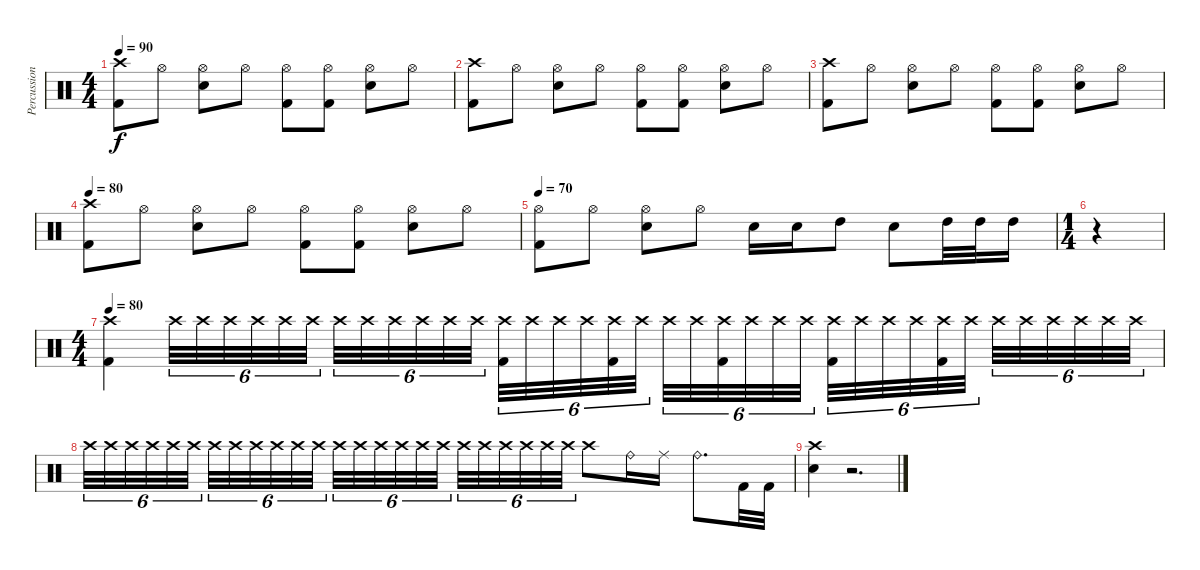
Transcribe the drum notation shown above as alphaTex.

\track ("Percussion" "Percussion") {instrument percussion}
\staff {score}
\articulation defaults
\ts (4 4)
\tempo 90
\clef neutral
\ks c
("Crash high (hit)" "Kick (hit) 2").8{dy f} "Hi-Hat (open)".8 ("Hi-Hat (open)" "Electric Snare (hit)").8 "Hi-Hat (open)".8 ("Hi-Hat (open)" "Kick (hit) 2").8 ("Hi-Hat (open)" "Kick (hit) 2").8 ("Hi-Hat (open)" "Electric Snare (hit)").8 "Hi-Hat (open)".8 |
("Crash high (hit)" "Kick (hit) 2").8 "Hi-Hat (open)".8 ("Hi-Hat (open)" "Electric Snare (hit)").8 "Hi-Hat (open)".8 ("Hi-Hat (open)" "Kick (hit) 2").8 ("Hi-Hat (open)" "Kick (hit) 2").8 ("Hi-Hat (open)" "Electric Snare (hit)").8 "Hi-Hat (open)".8 |
("Crash high (hit)" "Kick (hit) 2").8 "Hi-Hat (open)".8 ("Hi-Hat (open)" "Electric Snare (hit)").8 "Hi-Hat (open)".8 ("Hi-Hat (open)" "Kick (hit) 2").8 ("Hi-Hat (open)" "Kick (hit) 2").8 ("Hi-Hat (open)" "Electric Snare (hit)").8 "Hi-Hat (open)".8 |
\tempo 80
("Crash high (hit)" "Kick (hit) 2").8 "Hi-Hat (open)".8 ("Hi-Hat (open)" "Electric Snare (hit)").8 "Hi-Hat (open)".8 ("Hi-Hat (open)" "Kick (hit) 2").8 ("Hi-Hat (open)" "Kick (hit) 2").8 ("Hi-Hat (open)" "Electric Snare (hit)").8 "Hi-Hat (open)".8 |
\tempo 70
("Hi-Hat (open)" "Kick (hit) 2").8 "Hi-Hat (open)".8 ("Hi-Hat (open)" "Electric Snare (hit)").8 "Hi-Hat (open)".8 "Electric Snare (hit)".16 "Electric Snare (hit)".16 "High Tom (hit)".8 "Electric Snare (hit)".8 "High Tom (hit)".32 "High Tom (hit)".32 "High Tom (hit)".16 |
\ts (1 4)
r.4 |
\ts (4 4)
\tempo 80
("Crash high (hit)" "Kick (hit) 2").4 "Crash high (hit)".32{tu (6 4)} "Crash high (hit)".32{tu (6 4)} "Crash high (hit)".32{tu (6 4)} "Crash high (hit)".32{tu (6 4)} "Crash high (hit)".32{tu (6 4)} "Crash high (hit)".32{tu (6 4)} "Crash high (hit)".32{tu (6 4)} "Crash high (hit)".32{tu (6 4)} "Crash high (hit)".32{tu (6 4)} "Crash high (hit)".32{tu (6 4)} "Crash high (hit)".32{tu (6 4)} "Crash high (hit)".32{tu (6 4)} ("Crash high (hit)" "Kick (hit) 2").32{tu (6 4)} "Crash high (hit)".32{tu (6 4)} "Crash high (hit)".32{tu (6 4)} "Crash high (hit)".32{tu (6 4)} ("Crash high (hit)" "Kick (hit) 2").32{tu (6 4)} "Crash high (hit)".32{tu (6 4)} "Crash high (hit)".32{tu (6 4)} "Crash high (hit)".32{tu (6 4)} ("Crash high (hit)" "Kick (hit) 2").32{tu (6 4)} "Crash high (hit)".32{tu (6 4)} "Crash high (hit)".32{tu (6 4)} "Crash high (hit)".32{tu (6 4)} ("Crash high (hit)" "Kick (hit) 2").32{tu (6 4)} "Crash high (hit)".32{tu (6 4)} "Crash high (hit)".32{tu (6 4)} "Crash high (hit)".32{tu (6 4)} ("Crash high (hit)" "Kick (hit) 2").32{tu (6 4)} "Crash high (hit)".32{tu (6 4)} "Crash high (hit)".32{tu (6 4)} "Crash high (hit)".32{tu (6 4)} "Crash high (hit)".32{tu (6 4)} "Crash high (hit)".32{tu (6 4)} "Crash high (hit)".32{tu (6 4)} "Crash high (hit)".32{tu (6 4)} |
"Crash high (hit)".32{tu (6 4)} "Crash high (hit)".32{tu (6 4)} "Crash high (hit)".32{tu (6 4)} "Crash high (hit)".32{tu (6 4)} "Crash high (hit)".32{tu (6 4)} "Crash high (hit)".32{tu (6 4)} "Crash high (hit)".32{tu (6 4)} "Crash high (hit)".32{tu (6 4)} "Crash high (hit)".32{tu (6 4)} "Crash high (hit)".32{tu (6 4)} "Crash high (hit)".32{tu (6 4)} "Crash high (hit)".32{tu (6 4)} "Crash high (hit)".32{tu (6 4)} "Crash high (hit)".32{tu (6 4)} "Crash high (hit)".32{tu (6 4)} "Crash high (hit)".32{tu (6 4)} "Crash high (hit)".32{tu (6 4)} "Crash high (hit)".32{tu (6 4)} "Crash high (hit)".32{tu (6 4)} "Crash high (hit)".32{tu (6 4)} "Crash high (hit)".32{tu (6 4)} "Crash high (hit)".32{tu (6 4)} "Crash high (hit)".32{tu (6 4)} "Crash high (hit)".32{tu (6 4)} "Crash high (hit)".8 "Ride (bell)".16 "Ride (middle)".16 "Ride (bell)".8{d} "Kick (hit) 2".32 "Kick (hit) 2".32 |
("Crash high (hit)" "Electric Snare (hit)").4 r.2{d}
